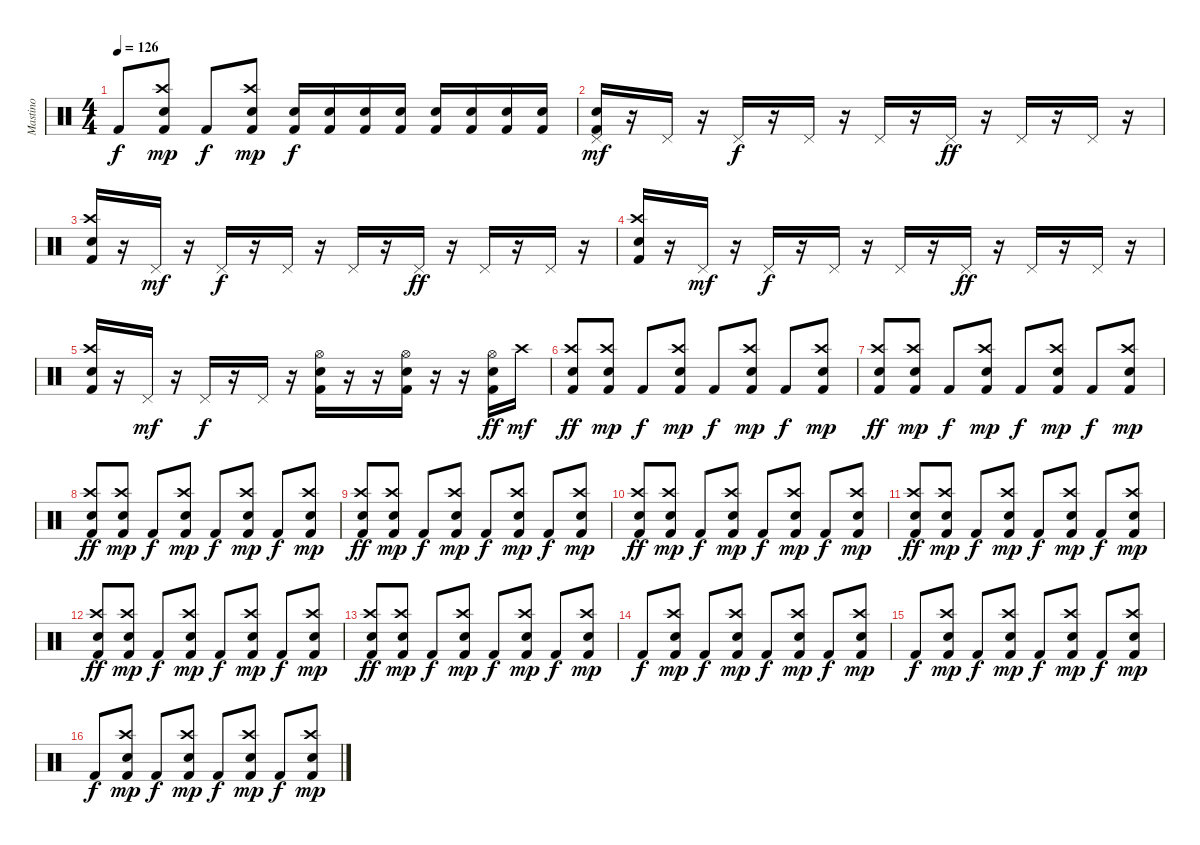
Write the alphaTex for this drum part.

\track ("Mastino" "Mastino") {instrument percussion}
\staff {score}
\articulation defaults
\ts (4 4)
\tempo 126
\clef neutral
\ks c "Kick (hit) 2".8{dy f}
("Crash high (hit)" "Electric Snare (hit)" "Kick (hit) 2").8{dy mp} "Kick (hit) 2".8{dy f} ("Crash high (hit)" "Electric Snare (hit)" "Kick (hit) 2").8{dy mp} ("Electric Snare (hit)" "Kick (hit) 2").16{dy f} ("Electric Snare (hit)" "Kick (hit) 2").16 ("Electric Snare (hit)" "Kick (hit) 2").16 ("Electric Snare (hit)" "Kick (hit) 2").16 ("Electric Snare (hit)" "Kick (hit) 2").16 ("Electric Snare (hit)" "Kick (hit) 2").16 ("Electric Snare (hit)" "Kick (hit) 2").16 ("Electric Snare (hit)" "Kick (hit) 2").16 |
("Pedal Hi-Hat (hit)" "Electric Snare (hit)" "Kick (hit) 2").16{dy mf} r.16 "Pedal Hi-Hat (hit)".16 r.16 "Pedal Hi-Hat (hit)".16{dy f} r.16 "Pedal Hi-Hat (hit)".16 r.16 "Pedal Hi-Hat (hit)".16 r.16 "Pedal Hi-Hat (hit)".16{dy ff} r.16 "Pedal Hi-Hat (hit)".16 r.16 "Pedal Hi-Hat (hit)".16 r.16 |
("Crash high (hit)" "Electric Snare (hit)" "Kick (hit) 2").16 r.16 "Pedal Hi-Hat (hit)".16{dy mf} r.16 "Pedal Hi-Hat (hit)".16{dy f} r.16 "Pedal Hi-Hat (hit)".16 r.16 "Pedal Hi-Hat (hit)".16 r.16 "Pedal Hi-Hat (hit)".16{dy ff} r.16 "Pedal Hi-Hat (hit)".16 r.16 "Pedal Hi-Hat (hit)".16 r.16 |
("Crash high (hit)" "Electric Snare (hit)" "Kick (hit) 2").16 r.16 "Pedal Hi-Hat (hit)".16{dy mf} r.16 "Pedal Hi-Hat (hit)".16{dy f} r.16 "Pedal Hi-Hat (hit)".16 r.16 "Pedal Hi-Hat (hit)".16 r.16 "Pedal Hi-Hat (hit)".16{dy ff} r.16 "Pedal Hi-Hat (hit)".16 r.16 "Pedal Hi-Hat (hit)".16 r.16 |
("Crash high (hit)" "Electric Snare (hit)" "Kick (hit) 2").16 r.16 "Pedal Hi-Hat (hit)".16{dy mf} r.16 "Pedal Hi-Hat (hit)".16{dy f} r.16 "Pedal Hi-Hat (hit)".16 r.16 ("Hi-Hat (open)" "Electric Snare (hit)" "Kick (hit) 2").16 r.16 r.16 ("Hi-Hat (open)" "Electric Snare (hit)" "Kick (hit) 2").16 r.16 r.16 ("Hi-Hat (open)" "Electric Snare (hit)" "Kick (hit) 2").16{dy ff} "Crash high (hit)".16{dy mf} |
("Crash high (hit)" "Electric Snare (hit)" "Kick (hit) 2").8{dy ff} ("Crash high (hit)" "Electric Snare (hit)" "Kick (hit) 2").8{dy mp} "Kick (hit) 2".8{dy f} ("Crash high (hit)" "Electric Snare (hit)" "Kick (hit) 2").8{dy mp} "Kick (hit) 2".8{dy f} ("Crash high (hit)" "Electric Snare (hit)" "Kick (hit) 2").8{dy mp} "Kick (hit) 2".8{dy f} ("Crash high (hit)" "Electric Snare (hit)" "Kick (hit) 2").8{dy mp} |
("Crash high (hit)" "Electric Snare (hit)" "Kick (hit) 2").8{dy ff} ("Crash high (hit)" "Electric Snare (hit)" "Kick (hit) 2").8{dy mp} "Kick (hit) 2".8{dy f} ("Crash high (hit)" "Electric Snare (hit)" "Kick (hit) 2").8{dy mp} "Kick (hit) 2".8{dy f} ("Crash high (hit)" "Electric Snare (hit)" "Kick (hit) 2").8{dy mp} "Kick (hit) 2".8{dy f} ("Crash high (hit)" "Electric Snare (hit)" "Kick (hit) 2").8{dy mp} |
("Crash high (hit)" "Electric Snare (hit)" "Kick (hit) 2").8{dy ff} ("Crash high (hit)" "Electric Snare (hit)" "Kick (hit) 2").8{dy mp} "Kick (hit) 2".8{dy f} ("Crash high (hit)" "Electric Snare (hit)" "Kick (hit) 2").8{dy mp} "Kick (hit) 2".8{dy f} ("Crash high (hit)" "Electric Snare (hit)" "Kick (hit) 2").8{dy mp} "Kick (hit) 2".8{dy f} ("Crash high (hit)" "Electric Snare (hit)" "Kick (hit) 2").8{dy mp} |
("Crash high (hit)" "Electric Snare (hit)" "Kick (hit) 2").8{dy ff} ("Crash high (hit)" "Electric Snare (hit)" "Kick (hit) 2").8{dy mp} "Kick (hit) 2".8{dy f} ("Crash high (hit)" "Electric Snare (hit)" "Kick (hit) 2").8{dy mp} "Kick (hit) 2".8{dy f} ("Crash high (hit)" "Electric Snare (hit)" "Kick (hit) 2").8{dy mp} "Kick (hit) 2".8{dy f} ("Crash high (hit)" "Electric Snare (hit)" "Kick (hit) 2").8{dy mp} |
("Crash high (hit)" "Electric Snare (hit)" "Kick (hit) 2").8{dy ff} ("Crash high (hit)" "Electric Snare (hit)" "Kick (hit) 2").8{dy mp} "Kick (hit) 2".8{dy f} ("Crash high (hit)" "Electric Snare (hit)" "Kick (hit) 2").8{dy mp} "Kick (hit) 2".8{dy f} ("Crash high (hit)" "Electric Snare (hit)" "Kick (hit) 2").8{dy mp} "Kick (hit) 2".8{dy f} ("Crash high (hit)" "Electric Snare (hit)" "Kick (hit) 2").8{dy mp} |
("Crash high (hit)" "Electric Snare (hit)" "Kick (hit) 2").8{dy ff} ("Crash high (hit)" "Electric Snare (hit)" "Kick (hit) 2").8{dy mp} "Kick (hit) 2".8{dy f} ("Crash high (hit)" "Electric Snare (hit)" "Kick (hit) 2").8{dy mp} "Kick (hit) 2".8{dy f} ("Crash high (hit)" "Electric Snare (hit)" "Kick (hit) 2").8{dy mp} "Kick (hit) 2".8{dy f} ("Crash high (hit)" "Electric Snare (hit)" "Kick (hit) 2").8{dy mp} |
("Crash high (hit)" "Electric Snare (hit)" "Kick (hit) 2").8{dy ff} ("Crash high (hit)" "Electric Snare (hit)" "Kick (hit) 2").8{dy mp} "Kick (hit) 2".8{dy f} ("Crash high (hit)" "Electric Snare (hit)" "Kick (hit) 2").8{dy mp} "Kick (hit) 2".8{dy f} ("Crash high (hit)" "Electric Snare (hit)" "Kick (hit) 2").8{dy mp} "Kick (hit) 2".8{dy f} ("Crash high (hit)" "Electric Snare (hit)" "Kick (hit) 2").8{dy mp} |
("Crash high (hit)" "Electric Snare (hit)" "Kick (hit) 2").8{dy ff} ("Crash high (hit)" "Electric Snare (hit)" "Kick (hit) 2").8{dy mp} "Kick (hit) 2".8{dy f} ("Crash high (hit)" "Electric Snare (hit)" "Kick (hit) 2").8{dy mp} "Kick (hit) 2".8{dy f} ("Crash high (hit)" "Electric Snare (hit)" "Kick (hit) 2").8{dy mp} "Kick (hit) 2".8{dy f} ("Crash high (hit)" "Electric Snare (hit)" "Kick (hit) 2").8{dy mp} |
"Kick (hit) 2".8{dy f} ("Crash high (hit)" "Electric Snare (hit)" "Kick (hit) 2").8{dy mp} "Kick (hit) 2".8{dy f} ("Crash high (hit)" "Electric Snare (hit)" "Kick (hit) 2").8{dy mp} "Kick (hit) 2".8{dy f} ("Crash high (hit)" "Electric Snare (hit)" "Kick (hit) 2").8{dy mp} "Kick (hit) 2".8{dy f} ("Crash high (hit)" "Electric Snare (hit)" "Kick (hit) 2").8{dy mp} |
"Kick (hit) 2".8{dy f} ("Crash high (hit)" "Electric Snare (hit)" "Kick (hit) 2").8{dy mp} "Kick (hit) 2".8{dy f} ("Crash high (hit)" "Electric Snare (hit)" "Kick (hit) 2").8{dy mp} "Kick (hit) 2".8{dy f} ("Crash high (hit)" "Electric Snare (hit)" "Kick (hit) 2").8{dy mp} "Kick (hit) 2".8{dy f} ("Crash high (hit)" "Electric Snare (hit)" "Kick (hit) 2").8{dy mp} |
"Kick (hit) 2".8{dy f} ("Crash high (hit)" "Electric Snare (hit)" "Kick (hit) 2").8{dy mp} "Kick (hit) 2".8{dy f} ("Crash high (hit)" "Electric Snare (hit)" "Kick (hit) 2").8{dy mp} "Kick (hit) 2".8{dy f} ("Crash high (hit)" "Electric Snare (hit)" "Kick (hit) 2").8{dy mp} "Kick (hit) 2".8{dy f} ("Crash high (hit)" "Electric Snare (hit)" "Kick (hit) 2").8{dy mp}
